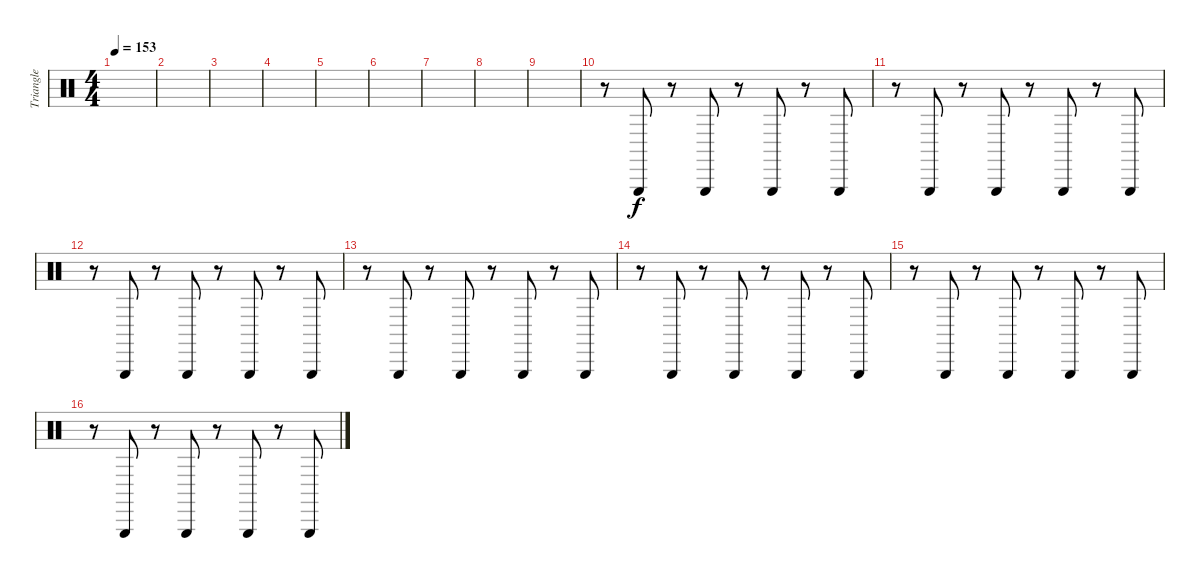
\track ("Triangle" "Triangle") {instrument percussion}
\staff {score}
\articulation defaults
\ts (4 4)
\tempo 153
\clef neutral
\ks c
|
|
|
|
|
|
|
|
|
r.8 "Triangle (hit)".8 r.8 "Triangle (hit)".8 r.8 "Triangle (hit)".8 r.8 "Triangle (hit)".8 |
r.8 "Triangle (hit)".8 r.8 "Triangle (hit)".8 r.8 "Triangle (hit)".8 r.8 "Triangle (hit)".8 |
r.8 "Triangle (hit)".8 r.8 "Triangle (hit)".8 r.8 "Triangle (hit)".8 r.8 "Triangle (hit)".8 |
r.8 "Triangle (hit)".8 r.8 "Triangle (hit)".8 r.8 "Triangle (hit)".8 r.8 "Triangle (hit)".8 |
r.8 "Triangle (hit)".8 r.8 "Triangle (hit)".8 r.8 "Triangle (hit)".8 r.8 "Triangle (hit)".8 |
r.8 "Triangle (hit)".8 r.8 "Triangle (hit)".8 r.8 "Triangle (hit)".8 r.8 "Triangle (hit)".8 |
r.8 "Triangle (hit)".8 r.8 "Triangle (hit)".8 r.8 "Triangle (hit)".8 r.8 "Triangle (hit)".8
